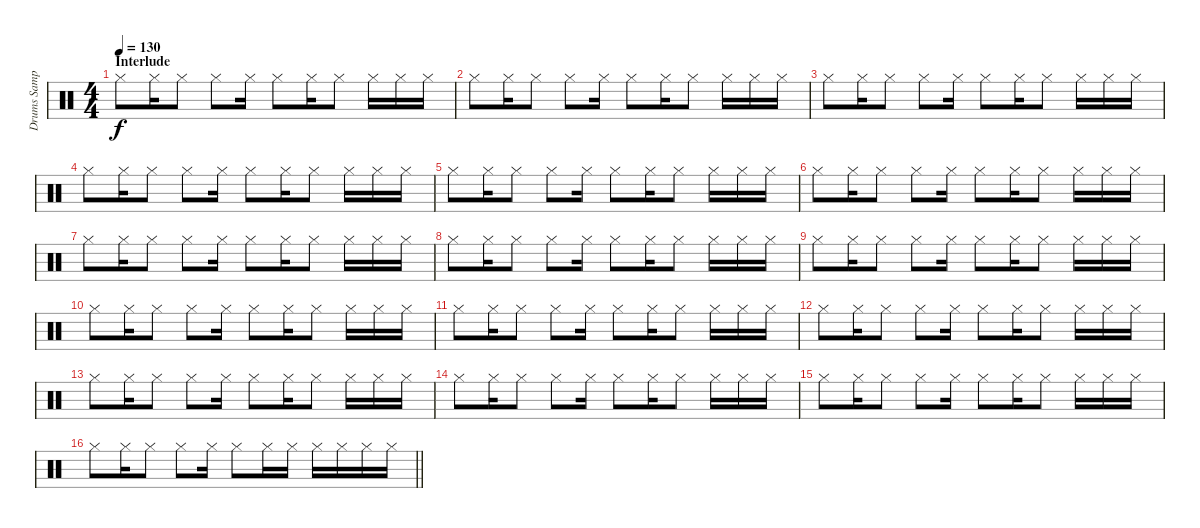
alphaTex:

\track ("Drums Sample" "Drums Samp") {instrument percussion}
\staff {score}
\articulation defaults
\ts (4 4)
\section ("" "Interlude")
\tempo 130
\clef neutral
\ks c "Hi-Hat (closed)".8{dy f} "Hi-Hat (closed)".16 "Hi-Hat (closed)".8 "Hi-Hat (closed)".8 "Hi-Hat (closed)".16 "Hi-Hat (closed)".8 "Hi-Hat (closed)".16 "Hi-Hat (closed)".8 "Hi-Hat (closed)".16 "Hi-Hat (closed)".16 "Hi-Hat (closed)".16
|
"Hi-Hat (closed)".8 "Hi-Hat (closed)".16 "Hi-Hat (closed)".8 "Hi-Hat (closed)".8 "Hi-Hat (closed)".16 "Hi-Hat (closed)".8 "Hi-Hat (closed)".16 "Hi-Hat (closed)".8 "Hi-Hat (closed)".16 "Hi-Hat (closed)".16 "Hi-Hat (closed)".16 |
"Hi-Hat (closed)".8 "Hi-Hat (closed)".16 "Hi-Hat (closed)".8 "Hi-Hat (closed)".8 "Hi-Hat (closed)".16 "Hi-Hat (closed)".8 "Hi-Hat (closed)".16 "Hi-Hat (closed)".8 "Hi-Hat (closed)".16 "Hi-Hat (closed)".16 "Hi-Hat (closed)".16 |
"Hi-Hat (closed)".8 "Hi-Hat (closed)".16 "Hi-Hat (closed)".8 "Hi-Hat (closed)".8 "Hi-Hat (closed)".16 "Hi-Hat (closed)".8 "Hi-Hat (closed)".16 "Hi-Hat (closed)".8 "Hi-Hat (closed)".16 "Hi-Hat (closed)".16 "Hi-Hat (closed)".16 |
"Hi-Hat (closed)".8 "Hi-Hat (closed)".16 "Hi-Hat (closed)".8 "Hi-Hat (closed)".8 "Hi-Hat (closed)".16 "Hi-Hat (closed)".8 "Hi-Hat (closed)".16 "Hi-Hat (closed)".8 "Hi-Hat (closed)".16 "Hi-Hat (closed)".16 "Hi-Hat (closed)".16 |
"Hi-Hat (closed)".8 "Hi-Hat (closed)".16 "Hi-Hat (closed)".8 "Hi-Hat (closed)".8 "Hi-Hat (closed)".16 "Hi-Hat (closed)".8 "Hi-Hat (closed)".16 "Hi-Hat (closed)".8 "Hi-Hat (closed)".16 "Hi-Hat (closed)".16 "Hi-Hat (closed)".16 |
"Hi-Hat (closed)".8 "Hi-Hat (closed)".16 "Hi-Hat (closed)".8 "Hi-Hat (closed)".8 "Hi-Hat (closed)".16 "Hi-Hat (closed)".8 "Hi-Hat (closed)".16 "Hi-Hat (closed)".8 "Hi-Hat (closed)".16 "Hi-Hat (closed)".16 "Hi-Hat (closed)".16 |
"Hi-Hat (closed)".8 "Hi-Hat (closed)".16 "Hi-Hat (closed)".8 "Hi-Hat (closed)".8 "Hi-Hat (closed)".16 "Hi-Hat (closed)".8 "Hi-Hat (closed)".16 "Hi-Hat (closed)".8 "Hi-Hat (closed)".16 "Hi-Hat (closed)".16 "Hi-Hat (closed)".16 |
"Hi-Hat (closed)".8 "Hi-Hat (closed)".16 "Hi-Hat (closed)".8 "Hi-Hat (closed)".8 "Hi-Hat (closed)".16 "Hi-Hat (closed)".8 "Hi-Hat (closed)".16 "Hi-Hat (closed)".8 "Hi-Hat (closed)".16 "Hi-Hat (closed)".16 "Hi-Hat (closed)".16 |
"Hi-Hat (closed)".8 "Hi-Hat (closed)".16 "Hi-Hat (closed)".8 "Hi-Hat (closed)".8 "Hi-Hat (closed)".16 "Hi-Hat (closed)".8 "Hi-Hat (closed)".16 "Hi-Hat (closed)".8 "Hi-Hat (closed)".16 "Hi-Hat (closed)".16 "Hi-Hat (closed)".16 |
"Hi-Hat (closed)".8 "Hi-Hat (closed)".16 "Hi-Hat (closed)".8 "Hi-Hat (closed)".8 "Hi-Hat (closed)".16 "Hi-Hat (closed)".8 "Hi-Hat (closed)".16 "Hi-Hat (closed)".8 "Hi-Hat (closed)".16 "Hi-Hat (closed)".16 "Hi-Hat (closed)".16 |
"Hi-Hat (closed)".8 "Hi-Hat (closed)".16 "Hi-Hat (closed)".8 "Hi-Hat (closed)".8 "Hi-Hat (closed)".16 "Hi-Hat (closed)".8 "Hi-Hat (closed)".16 "Hi-Hat (closed)".8 "Hi-Hat (closed)".16 "Hi-Hat (closed)".16 "Hi-Hat (closed)".16 |
"Hi-Hat (closed)".8 "Hi-Hat (closed)".16 "Hi-Hat (closed)".8 "Hi-Hat (closed)".8 "Hi-Hat (closed)".16 "Hi-Hat (closed)".8 "Hi-Hat (closed)".16 "Hi-Hat (closed)".8 "Hi-Hat (closed)".16 "Hi-Hat (closed)".16 "Hi-Hat (closed)".16 |
"Hi-Hat (closed)".8 "Hi-Hat (closed)".16 "Hi-Hat (closed)".8 "Hi-Hat (closed)".8 "Hi-Hat (closed)".16 "Hi-Hat (closed)".8 "Hi-Hat (closed)".16 "Hi-Hat (closed)".8 "Hi-Hat (closed)".16 "Hi-Hat (closed)".16 "Hi-Hat (closed)".16 |
"Hi-Hat (closed)".8 "Hi-Hat (closed)".16 "Hi-Hat (closed)".8 "Hi-Hat (closed)".8 "Hi-Hat (closed)".16 "Hi-Hat (closed)".8 "Hi-Hat (closed)".16 "Hi-Hat (closed)".8 "Hi-Hat (closed)".16 "Hi-Hat (closed)".16 "Hi-Hat (closed)".16 |
\barLineRight lightlight "Hi-Hat (closed)".8 "Hi-Hat (closed)".16 "Hi-Hat (closed)".8 "Hi-Hat (closed)".8 "Hi-Hat (closed)".16 "Hi-Hat (closed)".8 "Hi-Hat (closed)".16 "Hi-Hat (closed)".16 "Hi-Hat (closed)".16 "Hi-Hat (closed)".16 "Hi-Hat (closed)".16 "Hi-Hat (closed)".16
